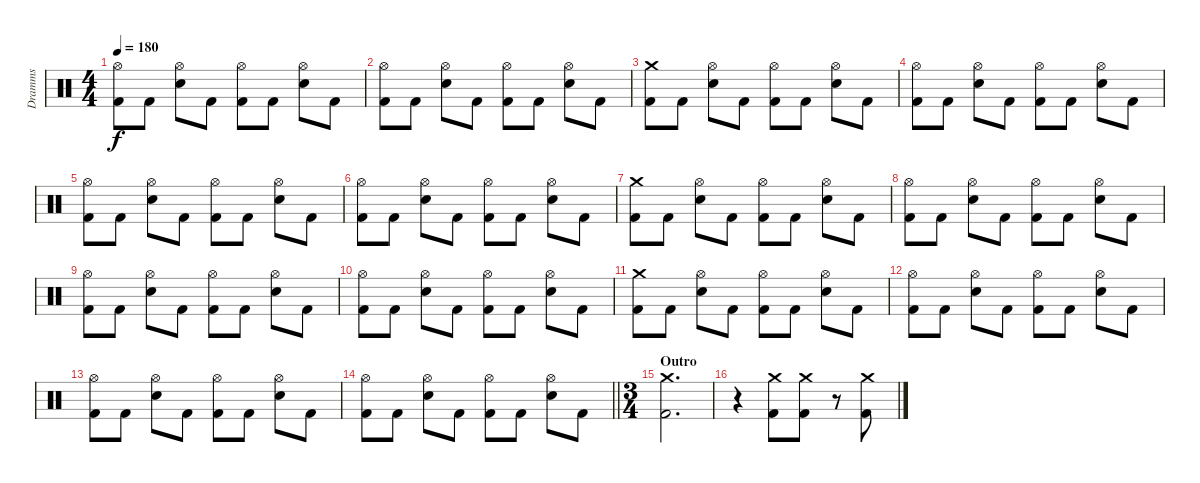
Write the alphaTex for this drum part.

\track ("Dramms" "Dramms") {instrument percussion}
\staff {score}
\articulation defaults
\ts (4 4)
\tempo 180
\clef neutral
\ks c
("Hi-Hat (open)" "Kick (hit) 2").8{dy f} "Kick (hit) 2".8 ("Hi-Hat (open)" "Electric Snare (hit)").8 "Kick (hit) 2".8 ("Hi-Hat (open)" "Kick (hit) 2").8 "Kick (hit) 2".8 ("Hi-Hat (open)" "Electric Snare (hit)").8 "Kick (hit) 2".8 |
("Hi-Hat (open)" "Kick (hit) 2").8 "Kick (hit) 2".8 ("Hi-Hat (open)" "Electric Snare (hit)").8 "Kick (hit) 2".8 ("Hi-Hat (open)" "Kick (hit) 2").8 "Kick (hit) 2".8 ("Hi-Hat (open)" "Electric Snare (hit)").8 "Kick (hit) 2".8 |
("Crash medium (hit)" "Kick (hit) 2").8 "Kick (hit) 2".8 ("Hi-Hat (open)" "Electric Snare (hit)").8 "Kick (hit) 2".8 ("Hi-Hat (open)" "Kick (hit) 2").8 "Kick (hit) 2".8 ("Hi-Hat (open)" "Electric Snare (hit)").8 "Kick (hit) 2".8 |
("Hi-Hat (open)" "Kick (hit) 2").8 "Kick (hit) 2".8 ("Hi-Hat (open)" "Electric Snare (hit)").8 "Kick (hit) 2".8 ("Hi-Hat (open)" "Kick (hit) 2").8 "Kick (hit) 2".8 ("Hi-Hat (open)" "Electric Snare (hit)").8 "Kick (hit) 2".8 |
("Hi-Hat (open)" "Kick (hit) 2").8 "Kick (hit) 2".8 ("Hi-Hat (open)" "Electric Snare (hit)").8 "Kick (hit) 2".8 ("Hi-Hat (open)" "Kick (hit) 2").8 "Kick (hit) 2".8 ("Hi-Hat (open)" "Electric Snare (hit)").8 "Kick (hit) 2".8 |
("Hi-Hat (open)" "Kick (hit) 2").8 "Kick (hit) 2".8 ("Hi-Hat (open)" "Electric Snare (hit)").8 "Kick (hit) 2".8 ("Hi-Hat (open)" "Kick (hit) 2").8 "Kick (hit) 2".8 ("Hi-Hat (open)" "Electric Snare (hit)").8 "Kick (hit) 2".8 |
("Crash medium (hit)" "Kick (hit) 2").8 "Kick (hit) 2".8 ("Hi-Hat (open)" "Electric Snare (hit)").8 "Kick (hit) 2".8 ("Hi-Hat (open)" "Kick (hit) 2").8 "Kick (hit) 2".8 ("Hi-Hat (open)" "Electric Snare (hit)").8 "Kick (hit) 2".8 |
("Hi-Hat (open)" "Kick (hit) 2").8 "Kick (hit) 2".8 ("Hi-Hat (open)" "Electric Snare (hit)").8 "Kick (hit) 2".8 ("Hi-Hat (open)" "Kick (hit) 2").8 "Kick (hit) 2".8 ("Hi-Hat (open)" "Electric Snare (hit)").8 "Kick (hit) 2".8 |
("Hi-Hat (open)" "Kick (hit) 2").8 "Kick (hit) 2".8 ("Hi-Hat (open)" "Electric Snare (hit)").8 "Kick (hit) 2".8 ("Hi-Hat (open)" "Kick (hit) 2").8 "Kick (hit) 2".8 ("Hi-Hat (open)" "Electric Snare (hit)").8 "Kick (hit) 2".8 |
("Hi-Hat (open)" "Kick (hit) 2").8 "Kick (hit) 2".8 ("Hi-Hat (open)" "Electric Snare (hit)").8 "Kick (hit) 2".8 ("Hi-Hat (open)" "Kick (hit) 2").8 "Kick (hit) 2".8 ("Hi-Hat (open)" "Electric Snare (hit)").8 "Kick (hit) 2".8 |
("Crash medium (hit)" "Kick (hit) 2").8 "Kick (hit) 2".8 ("Hi-Hat (open)" "Electric Snare (hit)").8 "Kick (hit) 2".8 ("Hi-Hat (open)" "Kick (hit) 2").8 "Kick (hit) 2".8 ("Hi-Hat (open)" "Electric Snare (hit)").8 "Kick (hit) 2".8 |
("Hi-Hat (open)" "Kick (hit) 2").8 "Kick (hit) 2".8 ("Hi-Hat (open)" "Electric Snare (hit)").8 "Kick (hit) 2".8 ("Hi-Hat (open)" "Kick (hit) 2").8 "Kick (hit) 2".8 ("Hi-Hat (open)" "Electric Snare (hit)").8 "Kick (hit) 2".8 |
("Hi-Hat (open)" "Kick (hit) 2").8 "Kick (hit) 2".8 ("Hi-Hat (open)" "Electric Snare (hit)").8 "Kick (hit) 2".8 ("Hi-Hat (open)" "Kick (hit) 2").8 "Kick (hit) 2".8 ("Hi-Hat (open)" "Electric Snare (hit)").8 "Kick (hit) 2".8 |
\barLineRight lightlight
("Hi-Hat (open)" "Kick (hit) 2").8 "Kick (hit) 2".8 ("Hi-Hat (open)" "Electric Snare (hit)").8 "Kick (hit) 2".8 ("Hi-Hat (open)" "Kick (hit) 2").8 "Kick (hit) 2".8 ("Hi-Hat (open)" "Electric Snare (hit)").8 "Kick (hit) 2".8 |
\ts (3 4)
\section ("" "Outro")
("Crash medium (hit)" "Kick (hit) 2").2{d} |
r.4 ("Crash medium (hit)" "Kick (hit) 2").8 ("Crash medium (hit)" "Kick (hit) 2").8 r.8 ("Crash medium (hit)" "Kick (hit) 2").8
